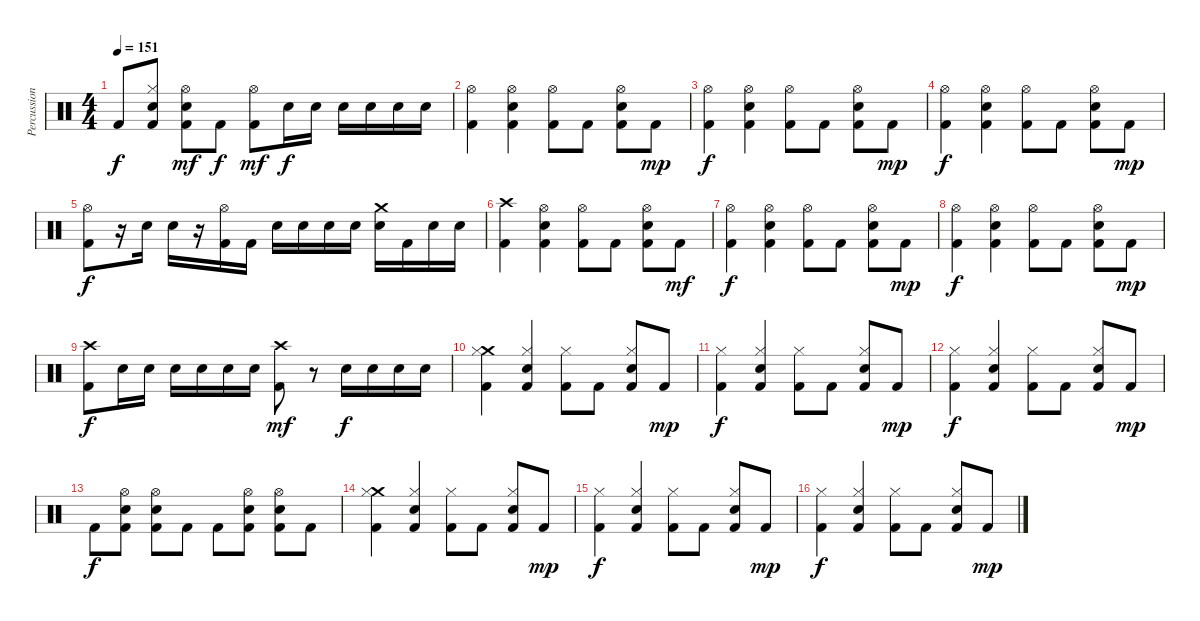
\track ("Percussion" "Percussion") {instrument percussion}
\staff {score}
\articulation defaults
\ts (4 4)
\tempo 151
\clef neutral
\ks c "Kick (hit) 2".8{dy f}
("Hi-Hat (closed)" "Snare (hit) 2" "Kick (hit) 2").8 ("Hi-Hat (open)" "Snare (hit) 2" "Kick (hit) 2").8{dy mf} "Kick (hit) 2".8{dy f} ("Hi-Hat (open)" "Kick (hit) 2").8{dy mf} "Snare (hit) 2".16{dy f} "Snare (hit) 2".16 "Snare (hit) 2".16 "Snare (hit) 2".16 "Snare (hit) 2".16 "Snare (hit) 2".16 |
("Hi-Hat (open)" "Kick (hit) 2").4 ("Hi-Hat (open)" "Snare (hit) 2" "Kick (hit) 2").4 ("Hi-Hat (open)" "Kick (hit) 2").8 "Kick (hit) 2".8 ("Hi-Hat (open)" "Snare (hit) 2" "Kick (hit) 2").8 "Kick (hit) 2".8{dy mp} |
("Hi-Hat (open)" "Kick (hit) 2").4{dy f} ("Hi-Hat (open)" "Snare (hit) 2" "Kick (hit) 2").4 ("Hi-Hat (open)" "Kick (hit) 2").8 "Kick (hit) 2".8 ("Hi-Hat (open)" "Snare (hit) 2" "Kick (hit) 2").8 "Kick (hit) 2".8{dy mp} |
("Hi-Hat (open)" "Kick (hit) 2").4{dy f} ("Hi-Hat (open)" "Snare (hit) 2" "Kick (hit) 2").4 ("Hi-Hat (open)" "Kick (hit) 2").8 "Kick (hit) 2".8 ("Hi-Hat (open)" "Snare (hit) 2" "Kick (hit) 2").8 "Kick (hit) 2".8{dy mp} |
("Hi-Hat (open)" "Kick (hit) 2").8{dy f} r.16 "Snare (hit) 2".16 "Snare (hit) 2".16 r.16 ("Hi-Hat (open)" "Kick (hit) 2").16 "Kick (hit) 2".16 "Snare (hit) 2".16 "Snare (hit) 2".16 "Snare (hit) 2".16 "Snare (hit) 2".16 ("Crash medium (hit)" "Snare (hit) 2").16 "Kick (hit) 2".16 "Snare (hit) 2".16 "Snare (hit) 2".16 |
("Crash high (hit)" "Kick (hit) 2").4 ("Hi-Hat (open)" "Snare (hit) 2" "Kick (hit) 2").4 ("Hi-Hat (open)" "Kick (hit) 2").8 "Kick (hit) 2".8 ("Hi-Hat (open)" "Snare (hit) 2" "Kick (hit) 2").8 "Kick (hit) 2".8{dy mf} |
("Hi-Hat (open)" "Kick (hit) 2").4{dy f} ("Hi-Hat (open)" "Snare (hit) 2" "Kick (hit) 2").4 ("Hi-Hat (open)" "Kick (hit) 2").8 "Kick (hit) 2".8 ("Hi-Hat (open)" "Snare (hit) 2" "Kick (hit) 2").8 "Kick (hit) 2".8{dy mp} |
("Hi-Hat (open)" "Kick (hit) 2").4{dy f} ("Hi-Hat (open)" "Snare (hit) 2" "Kick (hit) 2").4 ("Hi-Hat (open)" "Kick (hit) 2").8 "Kick (hit) 2".8 ("Hi-Hat (open)" "Snare (hit) 2" "Kick (hit) 2").8 "Kick (hit) 2".8{dy mp} |
("Crash high (hit)" "Kick (hit) 2").8{dy f} "Snare (hit) 2".16 "Snare (hit) 2".16 "Snare (hit) 2".16 "Snare (hit) 2".16 "Snare (hit) 2".16 "Snare (hit) 2".16 ("Crash high (hit)" "Kick (hit) 2").8{dy mf} r.8 "Snare (hit) 2".16{dy f} "Snare (hit) 2".16 "Snare (hit) 2".16 "Snare (hit) 2".16 |
("Crash medium (hit)" "Hi-Hat (closed)" "Kick (hit) 2").4 ("Hi-Hat (closed)" "Snare (hit) 2" "Kick (hit) 2").4 ("Hi-Hat (closed)" "Kick (hit) 2").8 "Kick (hit) 2".8 ("Hi-Hat (closed)" "Snare (hit) 2" "Kick (hit) 2").8 "Kick (hit) 2".8{dy mp} |
("Hi-Hat (closed)" "Kick (hit) 2").4{dy f} ("Hi-Hat (closed)" "Snare (hit) 2" "Kick (hit) 2").4 ("Hi-Hat (closed)" "Kick (hit) 2").8 "Kick (hit) 2".8 ("Hi-Hat (closed)" "Snare (hit) 2" "Kick (hit) 2").8 "Kick (hit) 2".8{dy mp} |
("Hi-Hat (closed)" "Kick (hit) 2").4{dy f} ("Hi-Hat (closed)" "Snare (hit) 2" "Kick (hit) 2").4 ("Hi-Hat (closed)" "Kick (hit) 2").8 "Kick (hit) 2".8 ("Hi-Hat (closed)" "Snare (hit) 2" "Kick (hit) 2").8 "Kick (hit) 2".8{dy mp} |
"Kick (hit) 2".8{dy f} ("Hi-Hat (open)" "Snare (hit) 2" "Kick (hit) 2").8 ("Hi-Hat (open)" "Snare (hit) 2" "Kick (hit) 2").8 "Kick (hit) 2".8 "Kick (hit) 2".8 ("Hi-Hat (open)" "Snare (hit) 2" "Kick (hit) 2").8 ("Hi-Hat (open)" "Snare (hit) 2" "Kick (hit) 2").8 "Kick (hit) 2".8 |
("Crash medium (hit)" "Hi-Hat (closed)" "Kick (hit) 2").4 ("Hi-Hat (closed)" "Snare (hit) 2" "Kick (hit) 2").4 ("Hi-Hat (closed)" "Kick (hit) 2").8 "Kick (hit) 2".8 ("Hi-Hat (closed)" "Snare (hit) 2" "Kick (hit) 2").8 "Kick (hit) 2".8{dy mp} |
("Hi-Hat (closed)" "Kick (hit) 2").4{dy f} ("Hi-Hat (closed)" "Snare (hit) 2" "Kick (hit) 2").4 ("Hi-Hat (closed)" "Kick (hit) 2").8 "Kick (hit) 2".8 ("Hi-Hat (closed)" "Snare (hit) 2" "Kick (hit) 2").8 "Kick (hit) 2".8{dy mp} |
("Hi-Hat (closed)" "Kick (hit) 2").4{dy f} ("Hi-Hat (closed)" "Snare (hit) 2" "Kick (hit) 2").4 ("Hi-Hat (closed)" "Kick (hit) 2").8 "Kick (hit) 2".8 ("Hi-Hat (closed)" "Snare (hit) 2" "Kick (hit) 2").8 "Kick (hit) 2".8{dy mp}
